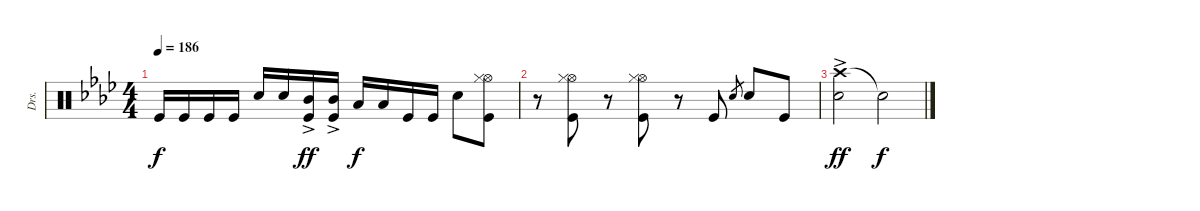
\track ("Drs." "Drs.") {instrument percussion}
\staff {score}
\articulation defaults
\ts (4 4)
\tempo 186
\clef neutral
\ks ab "Kick (hit)".16{dy f} "Kick (hit)".16 "Kick (hit)".16 "Kick (hit)".16 "Snare (hit) 2".16 "Snare (hit) 2".16
("Mid Tom (hit)"{ac} "Kick (hit)").16{dy ff} ("Mid Tom (hit)"{ac} "Kick (hit)").16 "Low Tom (hit)".16{dy f} "Low Tom (hit)".16 "Kick (hit)".16 "Kick (hit)".16 "Snare (hit) 2".8 ("Hi-Hat (open)" "Hi-Hat (closed)" "Kick (hit)").8 |
r.8 ("Hi-Hat (open)" "Hi-Hat (closed)" "Kick (hit)").8 r.8 ("Hi-Hat (open)" "Hi-Hat (closed)" "Kick (hit)").8 r.8 "Kick (hit)".8 "Snare (hit) 2".8{gr} "Snare (hit) 2".8 "Kick (hit)".8 |
("Crash high (hit)"{ac} "Snare (hit) 2").2{dy ff} "Snare (hit)"{t}.2{dy f}
